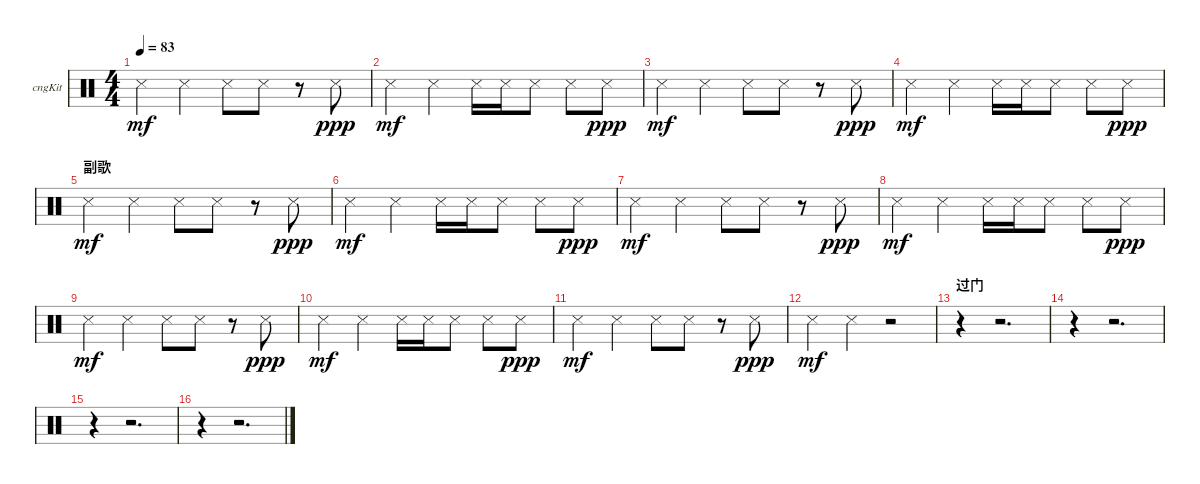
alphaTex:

\bracketExtendMode groupsimilarinstruments
\firstSystemTrackNameOrientation horizontal
\otherSystemsTrackNameOrientation horizontal
\track ("Congas" "cngKit") {instrument percussion}
\staff {score}
\articulation defaults
\ts (4 4)
\tempo 83
\clef neutral
\ks c "Snare (side stick) 3".4{dy mf} "Snare (side stick) 3".4 "Snare (side stick) 3".8 "Snare (side stick) 3".8
r.8 "Snare (side stick) 3".8{dy ppp} |
"Snare (side stick) 3".4{dy mf} "Snare (side stick) 3".4 "Snare (side stick) 3".16 "Snare (side stick) 3".16 "Snare (side stick) 3".8 "Snare (side stick) 3".8 "Snare (side stick) 3".8{dy ppp} |
"Snare (side stick) 3".4{dy mf} "Snare (side stick) 3".4 "Snare (side stick) 3".8 "Snare (side stick) 3".8 r.8 "Snare (side stick) 3".8{dy ppp} |
"Snare (side stick) 3".4{dy mf} "Snare (side stick) 3".4 "Snare (side stick) 3".16 "Snare (side stick) 3".16 "Snare (side stick) 3".8 "Snare (side stick) 3".8 "Snare (side stick) 3".8{dy ppp} |
\section ("" "副歌")
"Snare (side stick) 3".4{dy mf} "Snare (side stick) 3".4 "Snare (side stick) 3".8 "Snare (side stick) 3".8 r.8 "Snare (side stick) 3".8{dy ppp} |
"Snare (side stick) 3".4{dy mf} "Snare (side stick) 3".4 "Snare (side stick) 3".16 "Snare (side stick) 3".16 "Snare (side stick) 3".8 "Snare (side stick) 3".8 "Snare (side stick) 3".8{dy ppp} |
"Snare (side stick) 3".4{dy mf} "Snare (side stick) 3".4 "Snare (side stick) 3".8 "Snare (side stick) 3".8 r.8 "Snare (side stick) 3".8{dy ppp} |
"Snare (side stick) 3".4{dy mf} "Snare (side stick) 3".4 "Snare (side stick) 3".16 "Snare (side stick) 3".16 "Snare (side stick) 3".8 "Snare (side stick) 3".8 "Snare (side stick) 3".8{dy ppp} |
"Snare (side stick) 3".4{dy mf} "Snare (side stick) 3".4 "Snare (side stick) 3".8 "Snare (side stick) 3".8 r.8 "Snare (side stick) 3".8{dy ppp} |
"Snare (side stick) 3".4{dy mf} "Snare (side stick) 3".4 "Snare (side stick) 3".16 "Snare (side stick) 3".16 "Snare (side stick) 3".8 "Snare (side stick) 3".8 "Snare (side stick) 3".8{dy ppp} |
"Snare (side stick) 3".4{dy mf} "Snare (side stick) 3".4 "Snare (side stick) 3".8 "Snare (side stick) 3".8 r.8 "Snare (side stick) 3".8{dy ppp} |
"Snare (side stick) 3".4{dy mf} "Snare (side stick) 3".4 r.2 |
\section ("" "过门")
r.4 r.2{d} |
r.4 r.2{d} |
r.4 r.2{d} |
r.4 r.2{d}
